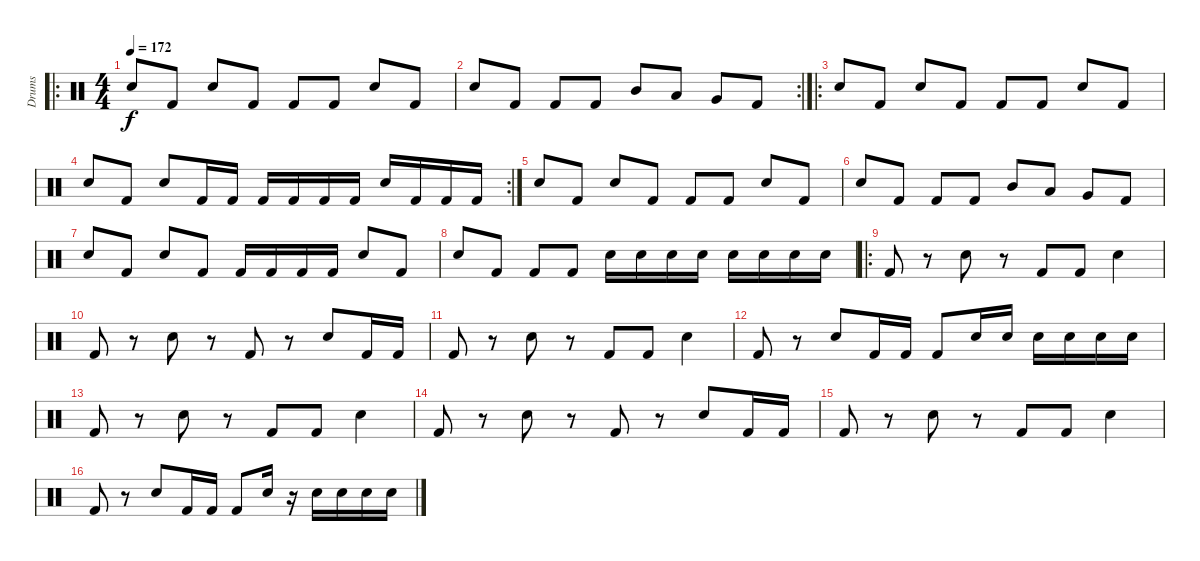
\track ("Drums" "Drums") {instrument percussion}
\staff {score}
\articulation defaults
\ro
\ts (4 4)
\tempo 172
\clef neutral
\ks c "Snare (hit) 2".8{dy f} "Kick (hit) 2".8 "Snare (hit) 2".8 "Kick (hit) 2".8 "Kick (hit) 2".8 "Kick (hit) 2".8 "Snare (hit) 2".8 "Kick (hit) 2".8
|
\rc 2 "Snare (hit) 2".8 "Kick (hit) 2".8 "Kick (hit) 2".8 "Kick (hit) 2".8 "Mid Tom (hit)".8 "Low Tom (hit)".8 "Very Low Tom (hit)".8 "Kick (hit) 2".8
|
\ro "Snare (hit) 2".8 "Kick (hit) 2".8 "Snare (hit) 2".8 "Kick (hit) 2".8 "Kick (hit) 2".8 "Kick (hit) 2".8 "Snare (hit) 2".8 "Kick (hit) 2".8
|
\rc 2 "Snare (hit) 2".8 "Kick (hit) 2".8 "Snare (hit) 2".8 "Kick (hit) 2".16 "Kick (hit) 2".16 "Kick (hit) 2".16 "Kick (hit) 2".16 "Kick (hit) 2".16 "Kick (hit) 2".16 "Snare (hit) 2".16 "Kick (hit) 2".16 "Kick (hit) 2".16 "Kick (hit) 2".16
|
"Snare (hit) 2".8 "Kick (hit) 2".8 "Snare (hit) 2".8 "Kick (hit) 2".8 "Kick (hit) 2".8 "Kick (hit) 2".8 "Snare (hit) 2".8 "Kick (hit) 2".8 |
"Snare (hit) 2".8 "Kick (hit) 2".8 "Kick (hit) 2".8 "Kick (hit) 2".8 "Mid Tom (hit)".8 "Low Tom (hit)".8 "Very Low Tom (hit)".8 "Kick (hit) 2".8 |
"Snare (hit) 2".8 "Kick (hit) 2".8 "Snare (hit) 2".8 "Kick (hit) 2".8 "Kick (hit) 2".16 "Kick (hit) 2".16 "Kick (hit) 2".16 "Kick (hit) 2".16 "Snare (hit) 2".8 "Kick (hit) 2".8 |
"Snare (hit) 2".8 "Kick (hit) 2".8 "Kick (hit) 2".8 "Kick (hit) 2".8 "Snare (hit) 2".16 "Snare (hit) 2".16 "Snare (hit) 2".16 "Snare (hit) 2".16 "Snare (hit) 2".16 "Snare (hit) 2".16 "Snare (hit) 2".16 "Snare (hit) 2".16 |
\ro "Kick (hit) 2".8
r.8 "Snare (hit) 2".8 r.8 "Kick (hit) 2".8 "Kick (hit) 2".8 "Snare (hit) 2".4 |
"Kick (hit) 2".8 r.8 "Snare (hit) 2".8 r.8 "Kick (hit) 2".8 r.8 "Snare (hit) 2".8 "Kick (hit) 2".16 "Kick (hit) 2".16 |
"Kick (hit) 2".8 r.8 "Snare (hit) 2".8 r.8 "Kick (hit) 2".8 "Kick (hit) 2".8 "Snare (hit) 2".4 |
"Kick (hit) 2".8 r.8 "Snare (hit) 2".8 "Kick (hit) 2".16 "Kick (hit) 2".16 "Kick (hit) 2".8 "Snare (hit) 2".16 "Snare (hit) 2".16 "Snare (hit) 2".16 "Snare (hit) 2".16 "Snare (hit) 2".16 "Snare (hit) 2".16 |
"Kick (hit) 2".8 r.8 "Snare (hit) 2".8 r.8 "Kick (hit) 2".8 "Kick (hit) 2".8 "Snare (hit) 2".4 |
"Kick (hit) 2".8 r.8 "Snare (hit) 2".8 r.8 "Kick (hit) 2".8 r.8 "Snare (hit) 2".8 "Kick (hit) 2".16 "Kick (hit) 2".16 |
"Kick (hit) 2".8 r.8 "Snare (hit) 2".8 r.8 "Kick (hit) 2".8 "Kick (hit) 2".8 "Snare (hit) 2".4 |
"Kick (hit) 2".8 r.8 "Snare (hit) 2".8 "Kick (hit) 2".16 "Kick (hit) 2".16 "Kick (hit) 2".8 "Snare (hit) 2".16 r.16 "Snare (hit) 2".16 "Snare (hit) 2".16 "Snare (hit) 2".16 "Snare (hit) 2".16
